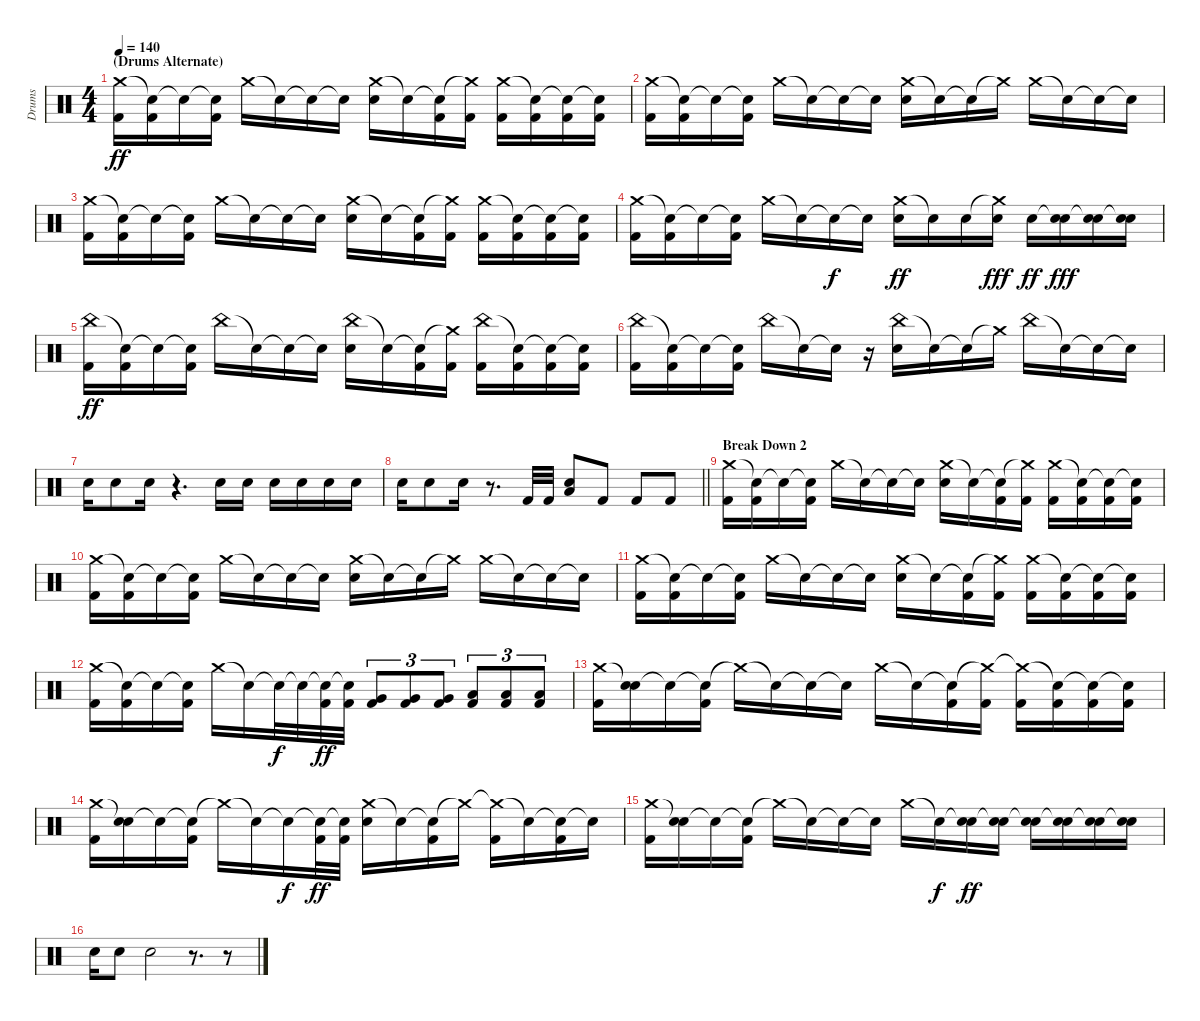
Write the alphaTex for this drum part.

\track ("Drums" "Drums") {instrument percussion}
\staff {score}
\articulation defaults
\ts (4 4)
\section ("" "(Drums Alternate)")
\tempo 140
\clef neutral
\ks c
("Crash medium (hit)" "Kick (hit) 2").16{dy ff balance 8} ("Snare (hit)"{t} "Kick (hit) 2").16 "Snare (hit)"{t}.16 ("Snare (hit)"{t} "Kick (hit) 2").16 "Crash medium (hit)".16 "Snare (hit)"{t}.16 "Snare (hit)"{t}.16 "Snare (hit)"{t}.16 ("Crash medium (hit)" "Electric Snare (hit)").16 "Snare (hit)"{t}.16 ("Snare (hit)"{t} "Kick (hit) 2").16 ("Crash medium (hit)"{t} "Kick (hit) 2").16 ("Crash medium (hit)" "Kick (hit) 2").16 ("Snare (hit)"{t} "Kick (hit) 2").16 ("Snare (hit)"{t} "Kick (hit) 2").16 ("Snare (hit)"{t} "Kick (hit) 2").16 |
("Crash medium (hit)" "Kick (hit) 2").16 ("Snare (hit)"{t} "Kick (hit) 2").16 "Snare (hit)"{t}.16 ("Snare (hit)"{t} "Kick (hit) 2").16 "Crash medium (hit)".16 "Snare (hit)"{t}.16 "Snare (hit)"{t}.16 "Snare (hit)"{t}.16 ("Crash medium (hit)" "Electric Snare (hit)").16 "Snare (hit)"{t}.16 "Snare (hit)"{t}.16 "Crash medium (hit)"{t}.16 "Crash medium (hit)".16 "Snare (hit)"{t}.16 "Snare (hit)"{t}.16 "Snare (hit)"{t}.16 |
("Crash medium (hit)" "Kick (hit) 2").16 ("Snare (hit)"{t} "Kick (hit) 2").16 "Snare (hit)"{t}.16 ("Snare (hit)"{t} "Kick (hit) 2").16 "Crash medium (hit)".16 "Snare (hit)"{t}.16 "Snare (hit)"{t}.16 "Snare (hit)"{t}.16 ("Crash medium (hit)" "Electric Snare (hit)").16 "Snare (hit)"{t}.16 ("Snare (hit)"{t} "Kick (hit) 2").16 ("Crash medium (hit)"{t} "Kick (hit) 2").16 ("Crash medium (hit)" "Kick (hit) 2").16 ("Snare (hit)"{t} "Kick (hit) 2").16 ("Snare (hit)"{t} "Kick (hit) 2").16 ("Snare (hit)"{t} "Kick (hit) 2").16 |
("Crash medium (hit)" "Kick (hit) 2").16 ("Snare (hit)"{t} "Kick (hit) 2").16 "Snare (hit)"{t}.16 ("Snare (hit)"{t} "Kick (hit) 2").16 "Crash medium (hit)".16 "Snare (hit)"{t}.16 "Snare (hit)"{t}.16{dy f} "Snare (hit)"{t}.16 ("Crash medium (hit)" "Electric Snare (hit)").16{dy ff} "Snare (hit)"{t}.16 "Electric Snare (hit)".16 ("Crash medium (hit)"{t} "Electric Snare (hit)").16{dy fff} "Electric Snare (hit)".16{dy ff} ("Snare (hit)"{t} "Electric Snare (hit)").16{dy fff} ("Snare (hit)"{t} "Electric Snare (hit)").16 ("Snare (hit)"{t} "Electric Snare (hit)").16 |
("China (hit)" "Kick (hit) 2").16{dy ff} ("Snare (hit)"{t} "Kick (hit) 2").16 "Snare (hit)"{t}.16 ("Snare (hit)"{t} "Kick (hit) 2").16 "China (hit)".16 "Snare (hit)"{t}.16 "Snare (hit)"{t}.16 "Snare (hit)"{t}.16 ("China (hit)" "Electric Snare (hit)").16 "Snare (hit)"{t}.16 ("Snare (hit)"{t} "Kick (hit) 2").16 ("Crash medium (hit)"{t} "Kick (hit) 2").16 ("China (hit)" "Kick (hit) 2").16 ("Snare (hit)"{t} "Kick (hit) 2").16 ("Snare (hit)"{t} "Kick (hit) 2").16 ("Snare (hit)"{t} "Kick (hit) 2").16 |
("China (hit)" "Kick (hit) 2").16 ("Snare (hit)"{t} "Kick (hit) 2").16 "Snare (hit)"{t}.16 ("Snare (hit)"{t} "Kick (hit) 2").16 "China (hit)".16 "Snare (hit)"{t}.16 "Snare (hit)"{t}.16 r.16 ("China (hit)" "Electric Snare (hit)").16 "Snare (hit)"{t}.16 "Snare (hit)"{t}.16 "Crash medium (hit)"{t}.16 "China (hit)".16 "Snare (hit)"{t}.16 "Snare (hit)"{t}.16 "Snare (hit)"{t}.16 |
"Electric Snare (hit)".16 "Electric Snare (hit)".8 "Electric Snare (hit)".16 r.4{d} "Electric Snare (hit)".16 "Electric Snare (hit)".16 "Electric Snare (hit)".16 "Electric Snare (hit)".16 "Electric Snare (hit)".16 "Electric Snare (hit)".16 |
\barLineRight lightlight "Electric Snare (hit)".16 "Electric Snare (hit)".8 "Electric Snare (hit)".16
r.8{d} "Kick (hit) 2".32 "Kick (hit) 2".32 ("Electric Snare (hit)" "Low Floor Tom (hit)").8 "Kick (hit) 2".8 "Kick (hit) 2".8 "Kick (hit) 2".8 |
\section ("" "Break Down 2")
("Crash medium (hit)" "Kick (hit) 2").16 ("Snare (hit)"{t} "Kick (hit) 2").16 "Snare (hit)"{t}.16 ("Snare (hit)"{t} "Kick (hit) 2").16 "Crash medium (hit)".16 "Snare (hit)"{t}.16 "Snare (hit)"{t}.16 "Snare (hit)"{t}.16 ("Crash medium (hit)" "Electric Snare (hit)").16 "Snare (hit)"{t}.16 ("Snare (hit)"{t} "Kick (hit) 2").16 ("Crash medium (hit)"{t} "Kick (hit) 2").16 ("Crash medium (hit)" "Kick (hit) 2").16 ("Snare (hit)"{t} "Kick (hit) 2").16 ("Snare (hit)"{t} "Kick (hit) 2").16 ("Snare (hit)"{t} "Kick (hit) 2").16 |
("Crash medium (hit)" "Kick (hit) 2").16 ("Snare (hit)"{t} "Kick (hit) 2").16 "Snare (hit)"{t}.16 ("Snare (hit)"{t} "Kick (hit) 2").16 "Crash medium (hit)".16 "Snare (hit)"{t}.16 "Snare (hit)"{t}.16 "Snare (hit)"{t}.16 ("Crash medium (hit)" "Electric Snare (hit)").16 "Snare (hit)"{t}.16 "Snare (hit)"{t}.16 "Crash medium (hit)"{t}.16 "Crash medium (hit)".16 "Snare (hit)"{t}.16 "Snare (hit)"{t}.16 "Snare (hit)"{t}.16 |
("Crash medium (hit)" "Kick (hit) 2").16 ("Snare (hit)"{t} "Kick (hit) 2").16 "Snare (hit)"{t}.16 ("Snare (hit)"{t} "Kick (hit) 2").16 "Crash medium (hit)".16 "Snare (hit)"{t}.16 "Snare (hit)"{t}.16 "Snare (hit)"{t}.16 ("Crash medium (hit)" "Electric Snare (hit)").16 "Snare (hit)"{t}.16 ("Snare (hit)"{t} "Kick (hit) 2").16 ("Crash medium (hit)"{t} "Kick (hit) 2").16 ("Crash medium (hit)" "Kick (hit) 2").16 ("Snare (hit)"{t} "Kick (hit) 2").16 ("Snare (hit)"{t} "Kick (hit) 2").16 ("Snare (hit)"{t} "Kick (hit) 2").16 |
("Crash medium (hit)" "Kick (hit) 2").16 ("Snare (hit)"{t} "Kick (hit) 2").16 "Snare (hit)"{t}.16 ("Snare (hit)"{t} "Kick (hit) 2").16 "Crash medium (hit)".16 "Snare (hit)"{t}.16 "Snare (hit)"{t}.32{dy f} "Snare (hit)"{t}.32 ("Snare (hit)"{t} "Kick (hit) 2").32{dy ff} ("Snare (hit)"{t} "Kick (hit) 2").32 ("Very Low Tom (hit)" "Kick (hit) 2").8{tu (3 2)} ("Very Low Tom (hit)" "Kick (hit) 2").8{tu (3 2)} ("Very Low Tom (hit)" "Kick (hit) 2").8{tu (3 2)} ("Low Floor Tom (hit)" "Kick (hit) 2").8{tu (3 2)} ("Low Floor Tom (hit)" "Kick (hit) 2").8{tu (3 2)} ("Low Floor Tom (hit)" "Kick (hit) 2").8{tu (3 2)} |
("Crash medium (hit)" "Kick (hit) 2").16 ("Snare (hit)"{t} "Electric Snare (hit)").16 "Snare (hit)"{t}.16 ("Snare (hit)"{t} "Kick (hit) 2").16 "Crash medium (hit)"{t}.16 "Snare (hit)"{t}.16 "Snare (hit)"{t}.16 "Snare (hit)"{t}.16 "Crash medium (hit)".16 "Snare (hit)"{t}.16 ("Snare (hit)"{t} "Kick (hit) 2").16 ("Crash medium (hit)"{t} "Kick (hit) 2").16 ("Crash medium (hit)"{t} "Kick (hit) 2").16 ("Snare (hit)"{t} "Kick (hit) 2").16 ("Snare (hit)"{t} "Kick (hit) 2").16 ("Snare (hit)"{t} "Kick (hit) 2").16 |
("Crash medium (hit)" "Kick (hit) 2").16 ("Snare (hit)"{t} "Electric Snare (hit)").16 "Snare (hit)"{t}.16 ("Snare (hit)"{t} "Kick (hit) 2").16 "Crash medium (hit)"{t}.16 "Snare (hit)"{t}.16 "Snare (hit)"{t}.16{dy f} ("Snare (hit)"{t} "Kick (hit) 2").32{dy ff} ("Snare (hit)"{t} "Kick (hit) 2").32 ("Crash medium (hit)" "Electric Snare (hit)").16 "Snare (hit)"{t}.16 ("Snare (hit)"{t} "Kick (hit) 2").16 "Crash medium (hit)"{t}.16 ("Crash medium (hit)"{t} "Kick (hit) 2").16 "Snare (hit)"{t}.16 ("Snare (hit)"{t} "Kick (hit) 2").16 "Snare (hit)"{t}.16 |
("Crash medium (hit)" "Kick (hit) 2").16 ("Snare (hit)"{t} "Electric Snare (hit)").16 "Snare (hit)"{t}.16 ("Snare (hit)"{t} "Kick (hit) 2").16 "Crash medium (hit)"{t}.16 "Snare (hit)"{t}.16 "Snare (hit)"{t}.16 "Snare (hit)"{t}.16 "Crash medium (hit)".16 "Snare (hit)"{t}.16{dy f} ("Snare (hit)"{t} "Electric Snare (hit)").16{dy ff} ("Snare (hit)"{t} "Electric Snare (hit)").16 ("Snare (hit)"{t} "Electric Snare (hit)").16 ("Snare (hit)"{t} "Electric Snare (hit)").16 ("Snare (hit)"{t} "Electric Snare (hit)").16 ("Snare (hit)"{t} "Electric Snare (hit)").16 |
"Electric Snare (hit)".16 "Electric Snare (hit)".8 "Electric Snare (hit)".2 r.8{d} r.8
